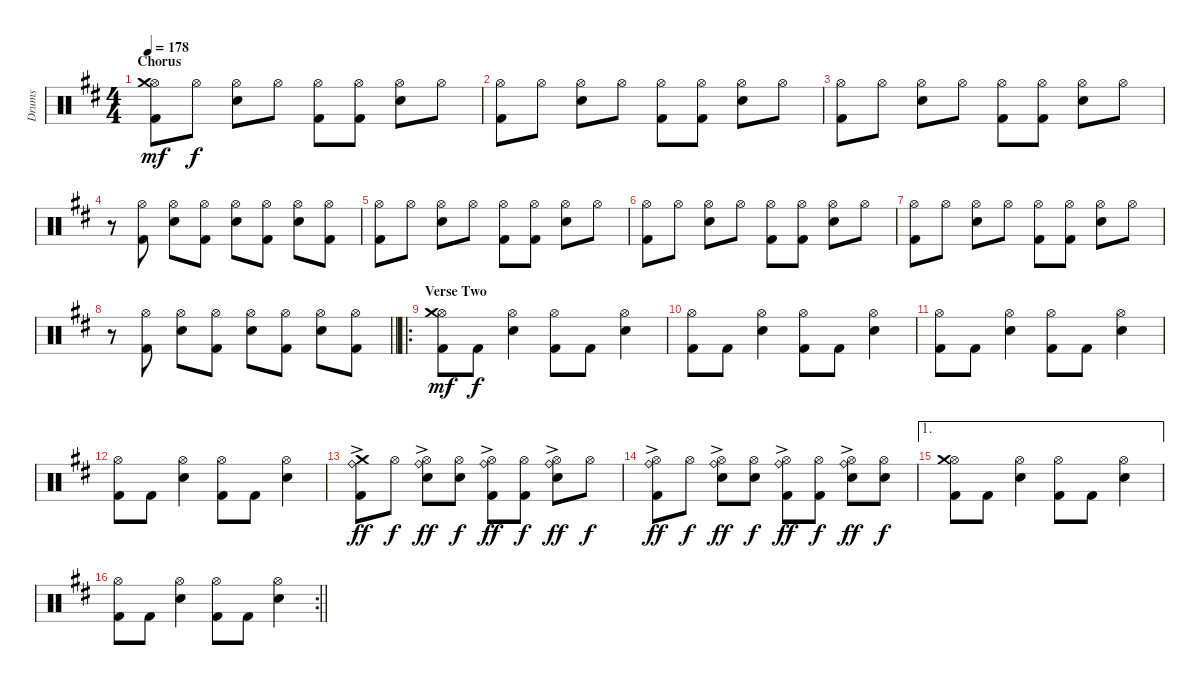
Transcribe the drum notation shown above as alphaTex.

\track ("Drums" "Drums") {instrument percussion}
\staff {score}
\articulation defaults
\ts (4 4)
\section ("" "Chorus")
\tempo 178
\clef neutral
\ks bminor
("Hi-Hat (open)" "Crash medium (hit)" "Kick (hit) 2").8{dy mf} "Hi-Hat (open)".8{dy f} ("Hi-Hat (open)" "Snare (hit) 2").8 "Hi-Hat (open)".8 ("Hi-Hat (open)" "Kick (hit) 2").8 ("Hi-Hat (open)" "Kick (hit) 2").8 ("Hi-Hat (open)" "Snare (hit) 2").8 "Hi-Hat (open)".8 |
("Hi-Hat (open)" "Kick (hit) 2").8 "Hi-Hat (open)".8 ("Hi-Hat (open)" "Snare (hit) 2").8 "Hi-Hat (open)".8 ("Hi-Hat (open)" "Kick (hit) 2").8 ("Hi-Hat (open)" "Kick (hit) 2").8 ("Hi-Hat (open)" "Snare (hit) 2").8 "Hi-Hat (open)".8 |
("Hi-Hat (open)" "Kick (hit) 2").8 "Hi-Hat (open)".8 ("Hi-Hat (open)" "Snare (hit) 2").8 "Hi-Hat (open)".8 ("Hi-Hat (open)" "Kick (hit) 2").8 ("Hi-Hat (open)" "Kick (hit) 2").8 ("Hi-Hat (open)" "Snare (hit) 2").8 "Hi-Hat (open)".8 |
r.8 ("Hi-Hat (open)" "Kick (hit) 2").8 ("Hi-Hat (open)" "Snare (hit) 2").8 ("Hi-Hat (open)" "Kick (hit) 2").8 ("Hi-Hat (open)" "Snare (hit) 2").8 ("Hi-Hat (open)" "Kick (hit) 2").8 ("Hi-Hat (open)" "Snare (hit) 2").8 ("Hi-Hat (open)" "Kick (hit) 2").8 |
("Hi-Hat (open)" "Kick (hit) 2").8 "Hi-Hat (open)".8 ("Hi-Hat (open)" "Snare (hit) 2").8 "Hi-Hat (open)".8 ("Hi-Hat (open)" "Kick (hit) 2").8 ("Hi-Hat (open)" "Kick (hit) 2").8 ("Hi-Hat (open)" "Snare (hit) 2").8 "Hi-Hat (open)".8 |
("Hi-Hat (open)" "Kick (hit) 2").8 "Hi-Hat (open)".8 ("Hi-Hat (open)" "Snare (hit) 2").8 "Hi-Hat (open)".8 ("Hi-Hat (open)" "Kick (hit) 2").8 ("Hi-Hat (open)" "Kick (hit) 2").8 ("Hi-Hat (open)" "Snare (hit) 2").8 "Hi-Hat (open)".8 |
("Hi-Hat (open)" "Kick (hit) 2").8 "Hi-Hat (open)".8 ("Hi-Hat (open)" "Snare (hit) 2").8 "Hi-Hat (open)".8 ("Hi-Hat (open)" "Kick (hit) 2").8 ("Hi-Hat (open)" "Kick (hit) 2").8 ("Hi-Hat (open)" "Snare (hit) 2").8 "Hi-Hat (open)".8 |
\barLineRight lightlight
r.8 ("Hi-Hat (open)" "Kick (hit) 2").8 ("Hi-Hat (open)" "Snare (hit) 2").8 ("Hi-Hat (open)" "Kick (hit) 2").8 ("Hi-Hat (open)" "Snare (hit) 2").8 ("Hi-Hat (open)" "Kick (hit) 2").8 ("Hi-Hat (open)" "Snare (hit) 2").8 ("Hi-Hat (open)" "Kick (hit) 2").8 |
\ro
\section ("" "Verse Two")
("Hi-Hat (open)" "Crash medium (hit)" "Kick (hit) 2").8{dy mf} "Kick (hit) 2".8{dy f} ("Hi-Hat (open)" "Snare (hit) 2").4 ("Hi-Hat (open)" "Kick (hit) 2").8 "Kick (hit) 2".8 ("Hi-Hat (open)" "Snare (hit) 2").4 |
("Hi-Hat (open)" "Kick (hit) 2").8 "Kick (hit) 2".8 ("Hi-Hat (open)" "Snare (hit) 2").4 ("Hi-Hat (open)" "Kick (hit) 2").8 "Kick (hit) 2".8 ("Hi-Hat (open)" "Snare (hit) 2").4 |
("Hi-Hat (open)" "Kick (hit) 2").8 "Kick (hit) 2".8 ("Hi-Hat (open)" "Snare (hit) 2").4 ("Hi-Hat (open)" "Kick (hit) 2").8 "Kick (hit) 2".8 ("Hi-Hat (open)" "Snare (hit) 2").4 |
("Hi-Hat (open)" "Kick (hit) 2").8 "Kick (hit) 2".8 ("Hi-Hat (open)" "Snare (hit) 2").4 ("Hi-Hat (open)" "Kick (hit) 2").8 "Kick (hit) 2".8 ("Hi-Hat (open)" "Snare (hit) 2").4 |
("Ride (bell)"{ac} "Crash medium (hit)" "Kick (hit) 2").8{dy ff} "Hi-Hat (open)".8{dy f} ("Hi-Hat (open)" "Ride (bell)"{ac} "Snare (hit) 2").8{dy ff} ("Hi-Hat (open)" "Snare (hit) 2").8{dy f} ("Hi-Hat (open)" "Ride (bell)"{ac} "Kick (hit) 2").8{dy ff} ("Hi-Hat (open)" "Kick (hit) 2").8{dy f} ("Hi-Hat (open)" "Ride (bell)"{ac} "Snare (hit) 2").8{dy ff} "Hi-Hat (open)".8{dy f} |
("Hi-Hat (open)" "Ride (bell)"{ac} "Kick (hit) 2").8{dy ff} "Hi-Hat (open)".8{dy f} ("Hi-Hat (open)" "Ride (bell)"{ac} "Snare (hit) 2").8{dy ff} ("Hi-Hat (open)" "Snare (hit) 2").8{dy f} ("Hi-Hat (open)" "Ride (bell)"{ac} "Kick (hit) 2").8{dy ff} ("Hi-Hat (open)" "Kick (hit) 2").8{dy f} ("Hi-Hat (open)" "Ride (bell)"{ac} "Snare (hit) 2").8{dy ff} ("Hi-Hat (open)" "Snare (hit) 2").8{dy f} |
\ae 1
("Hi-Hat (open)" "Crash medium (hit)" "Kick (hit) 2").8 "Kick (hit) 2".8 ("Hi-Hat (open)" "Snare (hit) 2").4 ("Hi-Hat (open)" "Kick (hit) 2").8 "Kick (hit) 2".8 ("Hi-Hat (open)" "Snare (hit) 2").4 |
\rc 2
\barLineRight lightlight
("Hi-Hat (open)" "Kick (hit) 2").8 "Kick (hit) 2".8 ("Hi-Hat (open)" "Snare (hit) 2").4 ("Hi-Hat (open)" "Kick (hit) 2").8 "Kick (hit) 2".8 ("Hi-Hat (open)" "Snare (hit) 2").4
